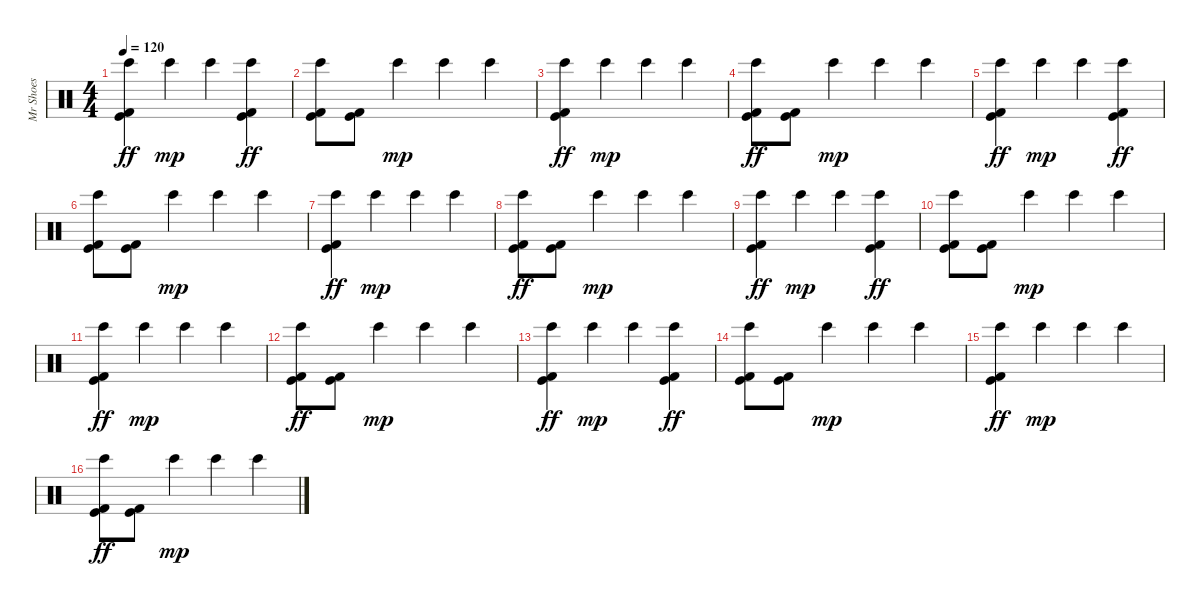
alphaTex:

\track ("Mr Shoes" "Mr Shoes") {instrument percussion}
\staff {score}
\articulation defaults
\ts (4 4)
\tempo 120
\clef neutral
\ks c
("Bongo High (hit)" "Kick (hit)" "Kick (hit) 2").4{dy ff} "Bongo High (hit)".4{dy mp} "Bongo High (hit)".4 ("Bongo High (hit)" "Kick (hit)" "Kick (hit) 2").4{dy ff} |
("Bongo High (hit)" "Kick (hit)" "Kick (hit) 2").8 ("Kick (hit)" "Kick (hit) 2").8 "Bongo High (hit)".4{dy mp} "Bongo High (hit)".4 "Bongo High (hit)".4 |
("Bongo High (hit)" "Kick (hit)" "Kick (hit) 2").4{dy ff} "Bongo High (hit)".4{dy mp} "Bongo High (hit)".4 "Bongo High (hit)".4 |
("Bongo High (hit)" "Kick (hit)" "Kick (hit) 2").8{dy ff} ("Kick (hit)" "Kick (hit) 2").8 "Bongo High (hit)".4{dy mp} "Bongo High (hit)".4 "Bongo High (hit)".4 |
("Bongo High (hit)" "Kick (hit)" "Kick (hit) 2").4{dy ff} "Bongo High (hit)".4{dy mp} "Bongo High (hit)".4 ("Bongo High (hit)" "Kick (hit)" "Kick (hit) 2").4{dy ff} |
("Bongo High (hit)" "Kick (hit)" "Kick (hit) 2").8 ("Kick (hit)" "Kick (hit) 2").8 "Bongo High (hit)".4{dy mp} "Bongo High (hit)".4 "Bongo High (hit)".4 |
("Bongo High (hit)" "Kick (hit)" "Kick (hit) 2").4{dy ff} "Bongo High (hit)".4{dy mp} "Bongo High (hit)".4 "Bongo High (hit)".4 |
("Bongo High (hit)" "Kick (hit)" "Kick (hit) 2").8{dy ff} ("Kick (hit)" "Kick (hit) 2").8 "Bongo High (hit)".4{dy mp} "Bongo High (hit)".4 "Bongo High (hit)".4 |
("Bongo High (hit)" "Kick (hit)" "Kick (hit) 2").4{dy ff} "Bongo High (hit)".4{dy mp} "Bongo High (hit)".4 ("Bongo High (hit)" "Kick (hit)" "Kick (hit) 2").4{dy ff} |
("Bongo High (hit)" "Kick (hit)" "Kick (hit) 2").8 ("Kick (hit)" "Kick (hit) 2").8 "Bongo High (hit)".4{dy mp} "Bongo High (hit)".4 "Bongo High (hit)".4 |
("Bongo High (hit)" "Kick (hit)" "Kick (hit) 2").4{dy ff} "Bongo High (hit)".4{dy mp} "Bongo High (hit)".4 "Bongo High (hit)".4 |
("Bongo High (hit)" "Kick (hit)" "Kick (hit) 2").8{dy ff} ("Kick (hit)" "Kick (hit) 2").8 "Bongo High (hit)".4{dy mp} "Bongo High (hit)".4 "Bongo High (hit)".4 |
("Bongo High (hit)" "Kick (hit)" "Kick (hit) 2").4{dy ff} "Bongo High (hit)".4{dy mp} "Bongo High (hit)".4 ("Bongo High (hit)" "Kick (hit)" "Kick (hit) 2").4{dy ff} |
("Bongo High (hit)" "Kick (hit)" "Kick (hit) 2").8 ("Kick (hit)" "Kick (hit) 2").8 "Bongo High (hit)".4{dy mp} "Bongo High (hit)".4 "Bongo High (hit)".4 |
("Bongo High (hit)" "Kick (hit)" "Kick (hit) 2").4{dy ff} "Bongo High (hit)".4{dy mp} "Bongo High (hit)".4 "Bongo High (hit)".4 |
("Bongo High (hit)" "Kick (hit)" "Kick (hit) 2").8{dy ff} ("Kick (hit)" "Kick (hit) 2").8 "Bongo High (hit)".4{dy mp} "Bongo High (hit)".4 "Bongo High (hit)".4
